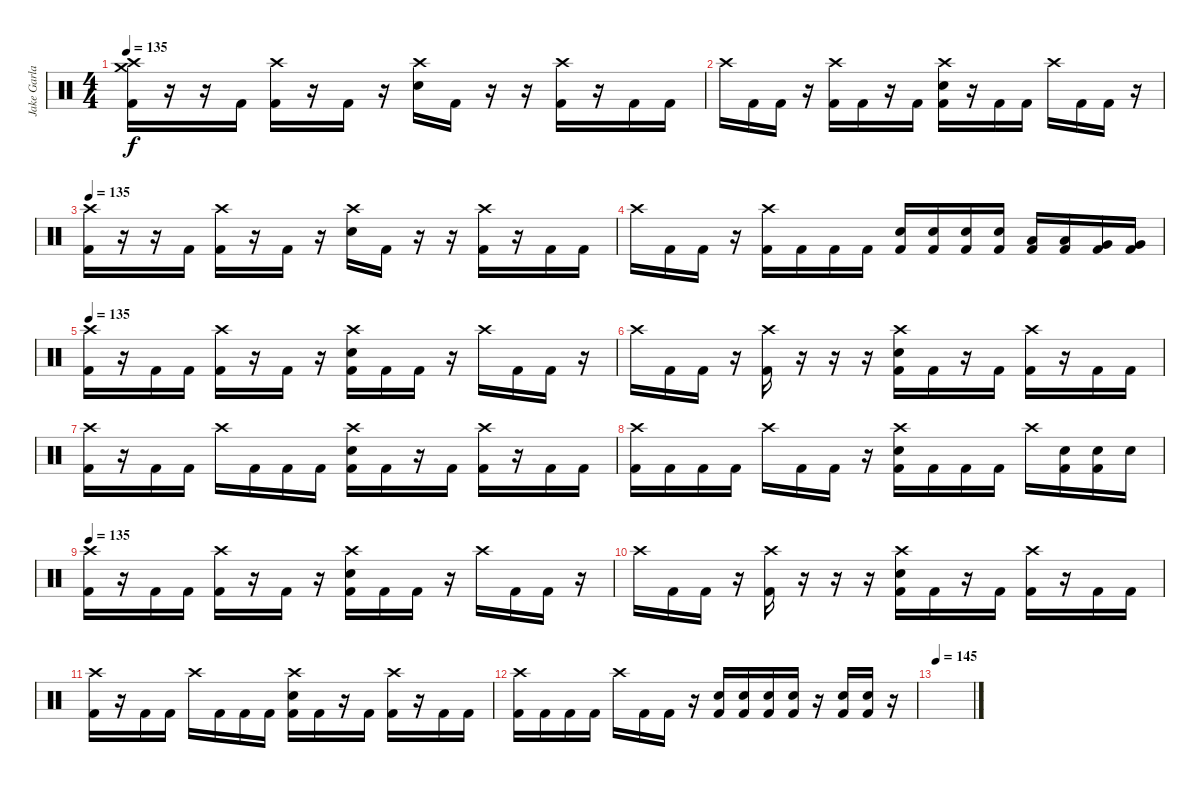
\track ("Jake Garland" "Jake Garla") {instrument percussion}
\staff {score}
\articulation defaults
\ts (4 4)
\tempo 135
\clef neutral
\ks c
("Crash high (hit)" "Crash medium (hit)" "Kick (hit) 2").16{dy f} r.16 r.16 "Kick (hit) 2".16 ("Crash high (hit)" "Kick (hit) 2").16 r.16 "Kick (hit) 2".16 r.16 ("Crash high (hit)" "Electric Snare (hit)").16 "Kick (hit) 2".16 r.16 r.16 ("Crash high (hit)" "Kick (hit) 2").16 r.16 "Kick (hit) 2".16 "Kick (hit) 2".16 |
"Crash high (hit)".16 "Kick (hit) 2".16 "Kick (hit) 2".16 r.16 ("Crash high (hit)" "Kick (hit) 2").16 "Kick (hit) 2".16 r.16 "Kick (hit) 2".16 ("Crash high (hit)" "Electric Snare (hit)" "Kick (hit) 2").16 r.16 "Kick (hit) 2".16 "Kick (hit) 2".16 "Crash high (hit)".16 "Kick (hit) 2".16 "Kick (hit) 2".16 r.16 |
\tempo 135
("Crash high (hit)" "Kick (hit) 2").16 r.16 r.16 "Kick (hit) 2".16 ("Crash high (hit)" "Kick (hit) 2").16 r.16 "Kick (hit) 2".16 r.16 ("Crash high (hit)" "Electric Snare (hit)").16 "Kick (hit) 2".16 r.16 r.16 ("Crash high (hit)" "Kick (hit) 2").16 r.16 "Kick (hit) 2".16 "Kick (hit) 2".16 |
"Crash high (hit)".16 "Kick (hit) 2".16 "Kick (hit) 2".16 r.16 ("Crash high (hit)" "Kick (hit) 2").16 "Kick (hit) 2".16 "Kick (hit) 2".16 "Kick (hit) 2".16 ("Electric Snare (hit)" "Kick (hit) 2").16 ("Electric Snare (hit)" "Kick (hit) 2").16 ("Electric Snare (hit)" "Kick (hit) 2").16 ("Electric Snare (hit)" "Kick (hit) 2").16 ("Low Tom (hit)" "Kick (hit) 2").16 ("Low Tom (hit)" "Kick (hit) 2").16 ("Very Low Tom (hit)" "Kick (hit) 2").16 ("Very Low Tom (hit)" "Kick (hit) 2").16 |
\tempo 135
("Crash high (hit)" "Kick (hit) 2").16 r.16 "Kick (hit) 2".16 "Kick (hit) 2".16 ("Crash high (hit)" "Kick (hit) 2").16 r.16 "Kick (hit) 2".16 r.16 ("Crash high (hit)" "Electric Snare (hit)" "Kick (hit) 2").16 "Kick (hit) 2".16 "Kick (hit) 2".16 r.16 "Crash high (hit)".16 "Kick (hit) 2".16 "Kick (hit) 2".16 r.16 |
"Crash high (hit)".16 "Kick (hit) 2".16 "Kick (hit) 2".16 r.16 ("Crash high (hit)" "Kick (hit) 2").16 r.16 r.16 r.16 ("Crash high (hit)" "Electric Snare (hit)" "Kick (hit) 2").16 "Kick (hit) 2".16 r.16 "Kick (hit) 2".16 ("Crash high (hit)" "Kick (hit) 2").16 r.16 "Kick (hit) 2".16 "Kick (hit) 2".16 |
("Crash high (hit)" "Kick (hit) 2").16 r.16 "Kick (hit) 2".16 "Kick (hit) 2".16 "Crash high (hit)".16 "Kick (hit) 2".16 "Kick (hit) 2".16 "Kick (hit) 2".16 ("Crash high (hit)" "Electric Snare (hit)" "Kick (hit) 2").16 "Kick (hit) 2".16 r.16 "Kick (hit) 2".16 ("Crash high (hit)" "Kick (hit) 2").16 r.16 "Kick (hit) 2".16 "Kick (hit) 2".16 |
("Crash high (hit)" "Kick (hit) 2").16 "Kick (hit) 2".16 "Kick (hit) 2".16 "Kick (hit) 2".16 "Crash high (hit)".16 "Kick (hit) 2".16 "Kick (hit) 2".16 r.16 ("Crash high (hit)" "Electric Snare (hit)" "Kick (hit) 2").16 "Kick (hit) 2".16 "Kick (hit) 2".16 "Kick (hit) 2".16 "Crash high (hit)".16 ("Electric Snare (hit)" "Kick (hit) 2").16 ("Electric Snare (hit)" "Kick (hit) 2").16 "Electric Snare (hit)".16 |
\tempo 135
("Crash high (hit)" "Kick (hit) 2").16 r.16 "Kick (hit) 2".16 "Kick (hit) 2".16 ("Crash high (hit)" "Kick (hit) 2").16 r.16 "Kick (hit) 2".16 r.16 ("Crash high (hit)" "Electric Snare (hit)" "Kick (hit) 2").16 "Kick (hit) 2".16 "Kick (hit) 2".16 r.16 "Crash high (hit)".16 "Kick (hit) 2".16 "Kick (hit) 2".16 r.16 |
"Crash high (hit)".16 "Kick (hit) 2".16 "Kick (hit) 2".16 r.16 ("Crash high (hit)" "Kick (hit) 2").16 r.16 r.16 r.16 ("Crash high (hit)" "Electric Snare (hit)" "Kick (hit) 2").16 "Kick (hit) 2".16 r.16 "Kick (hit) 2".16 ("Crash high (hit)" "Kick (hit) 2").16 r.16 "Kick (hit) 2".16 "Kick (hit) 2".16 |
("Crash high (hit)" "Kick (hit) 2").16 r.16 "Kick (hit) 2".16 "Kick (hit) 2".16 "Crash high (hit)".16 "Kick (hit) 2".16 "Kick (hit) 2".16 "Kick (hit) 2".16 ("Crash high (hit)" "Electric Snare (hit)" "Kick (hit) 2").16 "Kick (hit) 2".16 r.16 "Kick (hit) 2".16 ("Crash high (hit)" "Kick (hit) 2").16 r.16 "Kick (hit) 2".16 "Kick (hit) 2".16 |
("Crash high (hit)" "Kick (hit) 2").16 "Kick (hit) 2".16 "Kick (hit) 2".16 "Kick (hit) 2".16 "Crash high (hit)".16 "Kick (hit) 2".16 "Kick (hit) 2".16 r.16 ("Electric Snare (hit)" "Kick (hit) 2").16 ("Electric Snare (hit)" "Kick (hit) 2").16 ("Electric Snare (hit)" "Kick (hit) 2").16 ("Electric Snare (hit)" "Kick (hit) 2").16 r.16 ("Electric Snare (hit)" "Kick (hit) 2").16 ("Electric Snare (hit)" "Kick (hit) 2").16 r.16 |
\tempo 145
